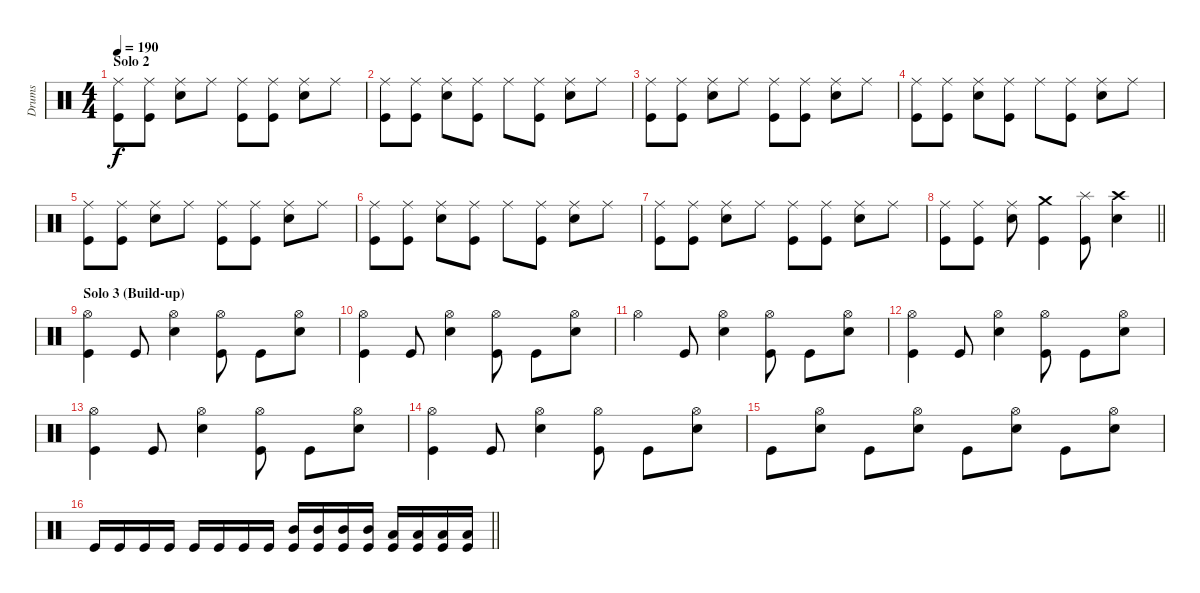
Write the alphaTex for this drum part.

\track ("Drums" "Drums") {instrument percussion}
\staff {score}
\articulation defaults
\ts (4 4)
\section ("" "Solo 2")
\tempo 190
\clef neutral
\ks c
("Ride (middle)" "Kick (hit)").8{dy f} ("Ride (middle)" "Kick (hit)").8 ("Ride (middle)" "Snare (hit) 2").8 "Ride (middle)".8 ("Ride (middle)" "Kick (hit)").8 ("Ride (middle)" "Kick (hit)").8 ("Ride (middle)" "Snare (hit) 2").8 "Ride (middle)".8 |
("Ride (middle)" "Kick (hit)").8 ("Ride (middle)" "Kick (hit)").8 ("Ride (middle)" "Snare (hit) 2").8 ("Ride (middle)" "Kick (hit)").8 "Ride (middle)".8 ("Ride (middle)" "Kick (hit)").8 ("Ride (middle)" "Snare (hit) 2").8 "Ride (middle)".8 |
("Ride (middle)" "Kick (hit)").8 ("Ride (middle)" "Kick (hit)").8 ("Ride (middle)" "Snare (hit) 2").8 "Ride (middle)".8 ("Ride (middle)" "Kick (hit)").8 ("Ride (middle)" "Kick (hit)").8 ("Ride (middle)" "Snare (hit) 2").8 "Ride (middle)".8 |
("Ride (middle)" "Kick (hit)").8 ("Ride (middle)" "Kick (hit)").8 ("Ride (middle)" "Snare (hit) 2").8 ("Ride (middle)" "Kick (hit)").8 "Ride (middle)".8 ("Ride (middle)" "Kick (hit)").8 ("Ride (middle)" "Snare (hit) 2").8 "Ride (middle)".8 |
("Ride (middle)" "Kick (hit)").8 ("Ride (middle)" "Kick (hit)").8 ("Ride (middle)" "Snare (hit) 2").8 "Ride (middle)".8 ("Ride (middle)" "Kick (hit)").8 ("Ride (middle)" "Kick (hit)").8 ("Ride (middle)" "Snare (hit) 2").8 "Ride (middle)".8 |
("Ride (middle)" "Kick (hit)").8 ("Ride (middle)" "Kick (hit)").8 ("Ride (middle)" "Snare (hit) 2").8 ("Ride (middle)" "Kick (hit)").8 "Ride (middle)".8 ("Ride (middle)" "Kick (hit)").8 ("Ride (middle)" "Snare (hit) 2").8 "Ride (middle)".8 |
("Ride (middle)" "Kick (hit)").8 ("Ride (middle)" "Kick (hit)").8 ("Ride (middle)" "Snare (hit) 2").8 "Ride (middle)".8 ("Ride (middle)" "Kick (hit)").8 ("Ride (middle)" "Kick (hit)").8 ("Ride (middle)" "Snare (hit) 2").8 "Ride (middle)".8 |
\barLineRight lightlight
("Ride (middle)" "Kick (hit)").8 ("Ride (middle)" "Kick (hit)").8 ("Ride (middle)" "Snare (hit) 2").8 ("Crash medium (hit)" "Kick (hit)").4 ("Splash (hit)" "Kick (hit)").8 ("Crash high (hit)" "Snare (hit) 2").4 |
\section ("" "Solo 3 (Build-up)")
("Hi-Hat (open)" "Kick (hit)").4 "Kick (hit)".8 ("Hi-Hat (open)" "Snare (hit) 2").4 ("Hi-Hat (open)" "Kick (hit)").8 "Kick (hit)".8 ("Hi-Hat (open)" "Snare (hit) 2").8 |
("Hi-Hat (open)" "Kick (hit)").4 "Kick (hit)".8 ("Hi-Hat (open)" "Snare (hit) 2").4 ("Hi-Hat (open)" "Kick (hit)").8 "Kick (hit)".8 ("Hi-Hat (open)" "Snare (hit) 2").8 |
"Hi-Hat (open)".4 "Kick (hit)".8 ("Hi-Hat (open)" "Snare (hit) 2").4 ("Hi-Hat (open)" "Kick (hit)").8 "Kick (hit)".8 ("Hi-Hat (open)" "Snare (hit) 2").8 |
("Hi-Hat (open)" "Kick (hit)").4 "Kick (hit)".8 ("Hi-Hat (open)" "Snare (hit) 2").4 ("Hi-Hat (open)" "Kick (hit)").8 "Kick (hit)".8 ("Hi-Hat (open)" "Snare (hit) 2").8 |
("Hi-Hat (open)" "Kick (hit)").4 "Kick (hit)".8 ("Hi-Hat (open)" "Snare (hit) 2").4 ("Hi-Hat (open)" "Kick (hit)").8 "Kick (hit)".8 ("Hi-Hat (open)" "Snare (hit) 2").8 |
("Hi-Hat (open)" "Kick (hit)").4 "Kick (hit)".8 ("Hi-Hat (open)" "Snare (hit) 2").4 ("Hi-Hat (open)" "Kick (hit)").8 "Kick (hit)".8 ("Hi-Hat (open)" "Snare (hit) 2").8 |
"Kick (hit)".8 ("Hi-Hat (open)" "Snare (hit) 2").8 "Kick (hit)".8 ("Hi-Hat (open)" "Snare (hit) 2").8 "Kick (hit)".8 ("Hi-Hat (open)" "Snare (hit) 2").8 "Kick (hit)".8 ("Hi-Hat (open)" "Snare (hit) 2").8 |
\barLineRight lightlight "Kick (hit)".16 "Kick (hit)".16 "Kick (hit)".16 "Kick (hit)".16 "Kick (hit)".16 "Kick (hit)".16 "Kick (hit)".16 "Kick (hit)".16
("Mid Tom (hit)" "Kick (hit)").16 ("Mid Tom (hit)" "Kick (hit)").16 ("Mid Tom (hit)" "Kick (hit)").16 ("Mid Tom (hit)" "Kick (hit)").16 ("Low Tom (hit)" "Kick (hit)").16 ("Low Tom (hit)" "Kick (hit)").16 ("Low Tom (hit)" "Kick (hit)").16 ("Low Tom (hit)" "Kick (hit)").16
